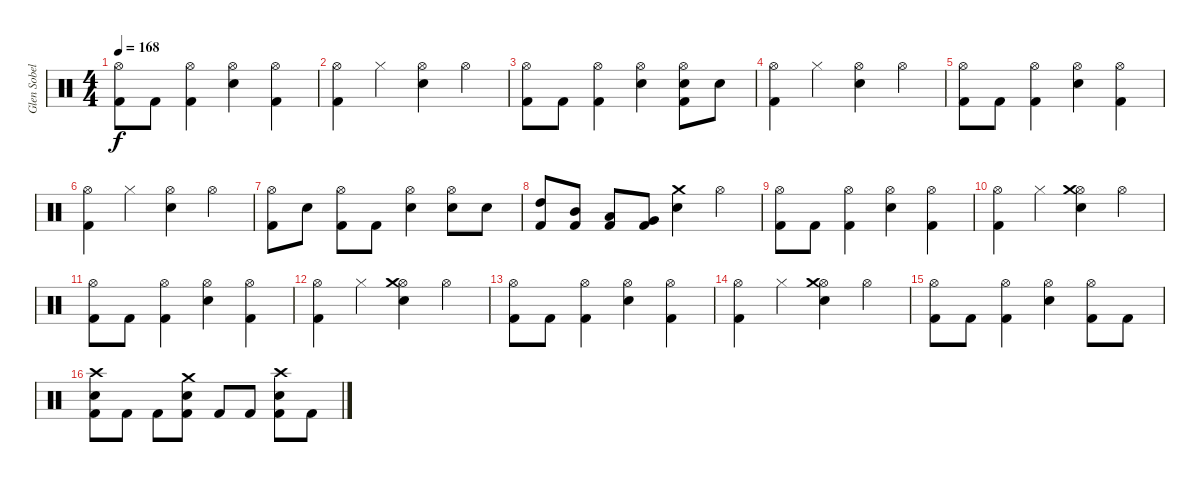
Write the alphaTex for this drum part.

\track ("Glen Sobel" "Glen Sobel") {instrument percussion}
\staff {score}
\articulation defaults
\ts (4 4)
\tempo 168
\clef neutral
\ks c
("Hi-Hat (open)" "Kick (hit) 2").8{dy f} "Kick (hit) 2".8 ("Hi-Hat (open)" "Kick (hit) 2").4 ("Hi-Hat (open)" "Snare (hit) 2").4 ("Hi-Hat (open)" "Kick (hit) 2").4 |
("Hi-Hat (open)" "Kick (hit) 2").4 "Hi-Hat (closed)".4 ("Hi-Hat (open)" "Snare (hit) 2").4 "Hi-Hat (open)".4 |
("Hi-Hat (open)" "Kick (hit) 2").8 "Kick (hit) 2".8 ("Hi-Hat (open)" "Kick (hit) 2").4 ("Hi-Hat (open)" "Snare (hit) 2").4 ("Hi-Hat (open)" "Snare (hit) 2" "Kick (hit) 2").8 "Snare (hit) 2".8 |
("Hi-Hat (open)" "Kick (hit) 2").4 "Hi-Hat (closed)".4 ("Hi-Hat (open)" "Snare (hit) 2").4 "Hi-Hat (open)".4 |
("Hi-Hat (open)" "Kick (hit) 2").8 "Kick (hit) 2".8 ("Hi-Hat (open)" "Kick (hit) 2").4 ("Hi-Hat (open)" "Snare (hit) 2").4 ("Hi-Hat (open)" "Kick (hit) 2").4 |
("Hi-Hat (open)" "Kick (hit) 2").4 "Hi-Hat (closed)".4 ("Hi-Hat (open)" "Snare (hit) 2").4 "Hi-Hat (open)".4 |
("Hi-Hat (open)" "Kick (hit) 2").8 "Snare (hit) 2".8 ("Hi-Hat (open)" "Kick (hit) 2").8 "Kick (hit) 2".8 ("Hi-Hat (open)" "Snare (hit) 2").4 ("Hi-Hat (open)" "Snare (hit) 2").8 "Snare (hit) 2".8 |
("High Tom (hit)" "Kick (hit) 2").8 ("Mid Tom (hit)" "Kick (hit) 2").8 ("Low Tom (hit)" "Kick (hit) 2").8 ("Very Low Tom (hit)" "Kick (hit) 2").8 ("Snare (hit) 2" "Crash medium (hit)").4 "Hi-Hat (open)".4 |
("Hi-Hat (open)" "Kick (hit) 2").8 "Kick (hit) 2".8 ("Hi-Hat (open)" "Kick (hit) 2").4 ("Hi-Hat (open)" "Snare (hit) 2").4 ("Hi-Hat (open)" "Kick (hit) 2").4 |
("Hi-Hat (open)" "Kick (hit) 2").4 "Hi-Hat (closed)".4 ("Hi-Hat (open)" "Snare (hit) 2" "Crash medium (hit)").4 "Hi-Hat (open)".4 |
("Hi-Hat (open)" "Kick (hit) 2").8 "Kick (hit) 2".8 ("Hi-Hat (open)" "Kick (hit) 2").4 ("Hi-Hat (open)" "Snare (hit) 2").4 ("Hi-Hat (open)" "Kick (hit) 2").4 |
("Hi-Hat (open)" "Kick (hit) 2").4 "Hi-Hat (closed)".4 ("Hi-Hat (open)" "Snare (hit) 2" "Crash medium (hit)").4 "Hi-Hat (open)".4 |
("Hi-Hat (open)" "Kick (hit) 2").8 "Kick (hit) 2".8 ("Hi-Hat (open)" "Kick (hit) 2").4 ("Hi-Hat (open)" "Snare (hit) 2").4 ("Hi-Hat (open)" "Kick (hit) 2").4 |
("Hi-Hat (open)" "Kick (hit) 2").4 "Hi-Hat (closed)".4 ("Hi-Hat (open)" "Snare (hit) 2" "Crash medium (hit)").4 "Hi-Hat (open)".4 |
("Hi-Hat (open)" "Kick (hit) 2").8 "Kick (hit) 2".8 ("Hi-Hat (open)" "Kick (hit) 2").4 ("Hi-Hat (open)" "Snare (hit) 2").4 ("Hi-Hat (open)" "Kick (hit) 2").8 "Kick (hit) 2".8 |
("Snare (hit) 2" "Crash high (hit)" "Kick (hit) 2").8 "Kick (hit) 2".8 "Kick (hit) 2".8 ("Snare (hit) 2" "Crash medium (hit)" "Kick (hit) 2").8 "Kick (hit) 2".8 "Kick (hit) 2".8 ("Snare (hit) 2" "Crash high (hit)" "Kick (hit) 2").8 "Kick (hit) 2".8
